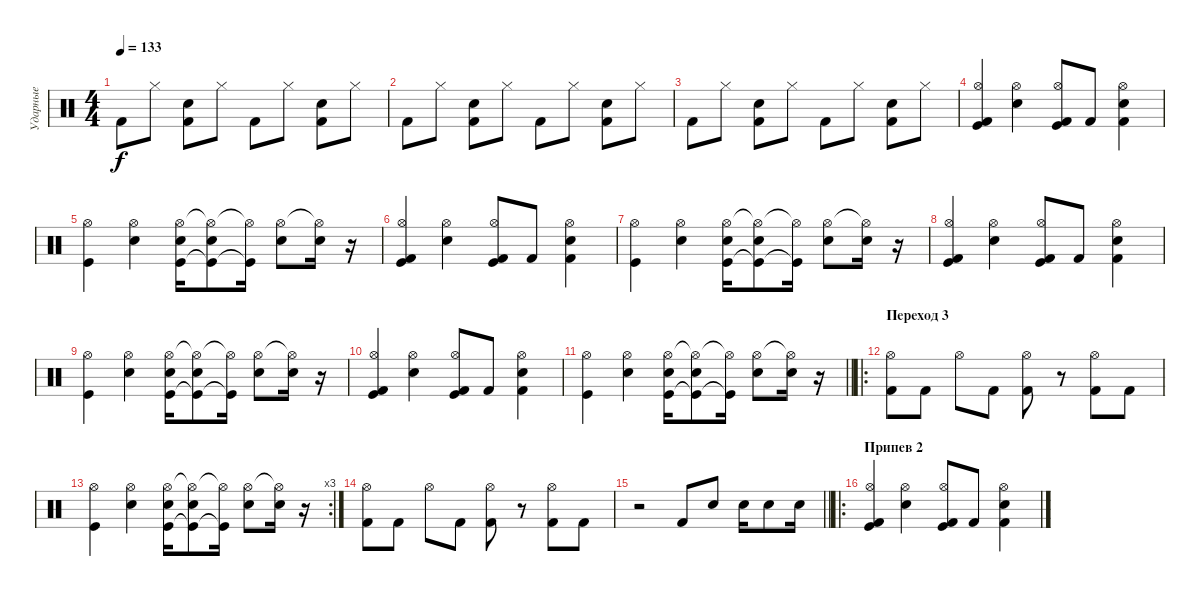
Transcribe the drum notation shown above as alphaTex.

\track ("Ударные" "Ударные") {instrument percussion}
\staff {score}
\articulation defaults
\ts (4 4)
\tempo 133
\clef neutral
\ks c "Kick (hit) 2".8{dy f} "Hi-Hat (closed)".8
("Kick (hit) 2" "Snare (hit) 2").8 "Hi-Hat (closed)".8 "Kick (hit) 2".8 "Hi-Hat (closed)".8 ("Kick (hit) 2" "Snare (hit) 2").8 "Hi-Hat (closed)".8 |
"Kick (hit) 2".8 "Hi-Hat (closed)".8 ("Kick (hit) 2" "Snare (hit) 2").8 "Hi-Hat (closed)".8 "Kick (hit) 2".8 "Hi-Hat (closed)".8 ("Kick (hit) 2" "Snare (hit) 2").8 "Hi-Hat (closed)".8 |
"Kick (hit) 2".8 "Hi-Hat (closed)".8 ("Kick (hit) 2" "Snare (hit) 2").8 "Hi-Hat (closed)".8 "Kick (hit) 2".8 "Hi-Hat (closed)".8 ("Kick (hit) 2" "Snare (hit) 2").8 "Hi-Hat (closed)".8 |
("Hi-Hat (open)" "Kick (hit) 2" "Kick (hit)").4 ("Hi-Hat (open)" "Snare (hit) 2").4 ("Hi-Hat (open)" "Kick (hit) 2" "Kick (hit)").8 "Kick (hit) 2".8 ("Hi-Hat (open)" "Kick (hit) 2" "Snare (hit) 2").4 |
("Hi-Hat (open)" "Kick (hit)").4 ("Hi-Hat (open)" "Snare (hit) 2").4 ("Hi-Hat (open)" "Kick (hit)" "Snare (hit) 2").16 ("Hi-Hat (open)"{t} "Kick (hit)"{t} "Snare (hit) 2").8 ("Hi-Hat (open)"{t} "Kick (hit)"{t}).16 ("Hi-Hat (open)" "Snare (hit) 2").8 ("Hi-Hat (open)"{t} "Snare (hit) 2").16 r.16 |
("Hi-Hat (open)" "Kick (hit) 2" "Kick (hit)").4 ("Hi-Hat (open)" "Snare (hit) 2").4 ("Hi-Hat (open)" "Kick (hit) 2" "Kick (hit)").8 "Kick (hit) 2".8 ("Hi-Hat (open)" "Kick (hit) 2" "Snare (hit) 2").4 |
("Hi-Hat (open)" "Kick (hit)").4 ("Hi-Hat (open)" "Snare (hit) 2").4 ("Hi-Hat (open)" "Kick (hit)" "Snare (hit) 2").16 ("Hi-Hat (open)"{t} "Kick (hit)"{t} "Snare (hit) 2").8 ("Hi-Hat (open)"{t} "Kick (hit)"{t}).16 ("Hi-Hat (open)" "Snare (hit) 2").8 ("Hi-Hat (open)"{t} "Snare (hit) 2").16 r.16 |
("Hi-Hat (open)" "Kick (hit) 2" "Kick (hit)").4 ("Hi-Hat (open)" "Snare (hit) 2").4 ("Hi-Hat (open)" "Kick (hit) 2" "Kick (hit)").8 "Kick (hit) 2".8 ("Hi-Hat (open)" "Kick (hit) 2" "Snare (hit) 2").4 |
("Hi-Hat (open)" "Kick (hit)").4 ("Hi-Hat (open)" "Snare (hit) 2").4 ("Hi-Hat (open)" "Kick (hit)" "Snare (hit) 2").16 ("Hi-Hat (open)"{t} "Kick (hit)"{t} "Snare (hit) 2").8 ("Hi-Hat (open)"{t} "Kick (hit)"{t}).16 ("Hi-Hat (open)" "Snare (hit) 2").8 ("Hi-Hat (open)"{t} "Snare (hit) 2").16 r.16 |
("Hi-Hat (open)" "Kick (hit) 2" "Kick (hit)").4 ("Hi-Hat (open)" "Snare (hit) 2").4 ("Hi-Hat (open)" "Kick (hit) 2" "Kick (hit)").8 "Kick (hit) 2".8 ("Hi-Hat (open)" "Kick (hit) 2" "Snare (hit) 2").4 |
\barLineRight lightlight
("Hi-Hat (open)" "Kick (hit)").4 ("Hi-Hat (open)" "Snare (hit) 2").4 ("Hi-Hat (open)" "Kick (hit)" "Snare (hit) 2").16 ("Hi-Hat (open)"{t} "Kick (hit)"{t} "Snare (hit) 2").8 ("Hi-Hat (open)"{t} "Kick (hit)"{t}).16 ("Hi-Hat (open)" "Snare (hit) 2").8 ("Hi-Hat (open)"{t} "Snare (hit) 2").16 r.16 |
\ro
\section ("" "Переход 3")
("Hi-Hat (open)" "Kick (hit) 2").8 "Kick (hit) 2".8 "Hi-Hat (open)".8 "Kick (hit) 2".8 ("Hi-Hat (open)" "Kick (hit) 2").8 r.8 ("Hi-Hat (open)" "Kick (hit) 2").8 "Kick (hit) 2".8 |
\rc 3
("Hi-Hat (open)" "Kick (hit)").4 ("Hi-Hat (open)" "Snare (hit) 2").4 ("Hi-Hat (open)" "Kick (hit)" "Snare (hit) 2").16 ("Hi-Hat (open)"{t} "Kick (hit)"{t} "Snare (hit) 2").8 ("Hi-Hat (open)"{t} "Kick (hit)"{t}).16 ("Hi-Hat (open)" "Snare (hit) 2").8 ("Hi-Hat (open)"{t} "Snare (hit) 2").16 r.16 |
("Hi-Hat (open)" "Kick (hit) 2").8 "Kick (hit) 2".8 "Hi-Hat (open)".8 "Kick (hit) 2".8 ("Hi-Hat (open)" "Kick (hit) 2").8 r.8 ("Hi-Hat (open)" "Kick (hit) 2").8 "Kick (hit) 2".8 |
\barLineRight lightlight
r.2 "Kick (hit) 2".8 "Snare (hit) 2".8 "Snare (hit) 2".16 "Snare (hit) 2".8 "Snare (hit) 2".16 |
\ro
\section ("" "Припев 2")
("Hi-Hat (open)" "Kick (hit) 2" "Kick (hit)").4 ("Hi-Hat (open)" "Snare (hit) 2").4 ("Hi-Hat (open)" "Kick (hit) 2" "Kick (hit)").8 "Kick (hit) 2".8 ("Hi-Hat (open)" "Kick (hit) 2" "Snare (hit) 2").4
